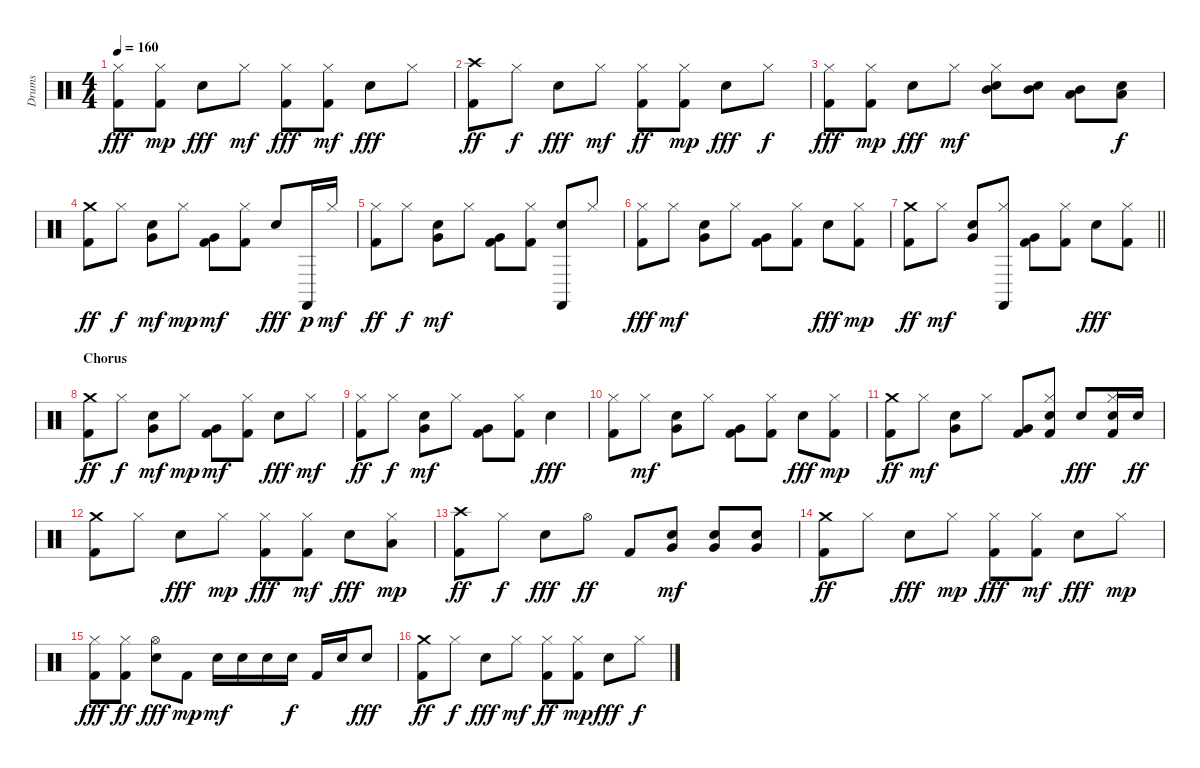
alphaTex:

\track ("Drums" "Drums") {instrument percussion}
\staff {score}
\articulation defaults
\ts (4 4)
\tempo 160
\clef neutral
\ks c
("Kick (hit) 2" "Hi-Hat (closed)").8{dy fff} ("Kick (hit) 2" "Hi-Hat (closed)").8{dy mp} "Electric Snare (hit)".8{dy fff} "Hi-Hat (closed)".8{dy mf} ("Kick (hit) 2" "Hi-Hat (closed)").8{dy fff} ("Kick (hit) 2" "Hi-Hat (closed)").8{dy mf} "Electric Snare (hit)".8{dy fff} "Hi-Hat (closed)".8 |
("Kick (hit) 2" "Crash high (hit)").8{dy ff} "Hi-Hat (closed)".8{dy f} "Electric Snare (hit)".8{dy fff} "Hi-Hat (closed)".8{dy mf} ("Kick (hit) 2" "Hi-Hat (closed)").8{dy ff} ("Kick (hit) 2" "Hi-Hat (closed)").8{dy mp} "Electric Snare (hit)".8{dy fff} "Hi-Hat (closed)".8{dy f} |
("Kick (hit) 2" "Hi-Hat (closed)").8{dy fff} ("Kick (hit) 2" "Hi-Hat (closed)").8{dy mp} "Electric Snare (hit)".8{dy fff} "Hi-Hat (closed)".8{dy mf} ("Electric Snare (hit)" "Hi-Hat (closed)" "Mid Tom (hit)").8 ("Electric Snare (hit)" "Mid Tom (hit)").8 ("Low Tom (hit)" "Mid Tom (hit)").8 ("Electric Snare (hit)" "Low Tom (hit)").8{dy f} |
("Kick (hit) 2" "Crash medium (hit)").8{dy ff} "Hi-Hat (closed)".8{dy f} ("Electric Snare (hit)" "Very Low Tom (hit)").8{dy mf} "Hi-Hat (closed)".8{dy mp} ("Kick (hit) 2" "Very Low Tom (hit)").8{dy mf} ("Kick (hit) 2" "Hi-Hat (closed)").8 "Electric Snare (hit)".8{dy fff} "Castanets (hit)".16{dy p} "Hi-Hat (closed)".16{dy mf} |
("Kick (hit) 2" "Hi-Hat (closed)").8{dy ff} "Hi-Hat (closed)".8{dy f} ("Electric Snare (hit)" "Very Low Tom (hit)").8{dy mf} "Hi-Hat (closed)".8 ("Kick (hit) 2" "Very Low Tom (hit)").8 ("Kick (hit) 2" "Hi-Hat (closed)").8 ("Electric Snare (hit)" "Castanets (hit)").8 "Hi-Hat (closed)".8 |
("Kick (hit) 2" "Hi-Hat (closed)").8{dy fff} "Hi-Hat (closed)".8{dy mf} ("Electric Snare (hit)" "Very Low Tom (hit)").8 "Hi-Hat (closed)".8 ("Kick (hit) 2" "Very Low Tom (hit)").8 ("Kick (hit) 2" "Hi-Hat (closed)").8 "Electric Snare (hit)".8{dy fff} ("Kick (hit) 2" "Hi-Hat (closed)").8{dy mp} |
\barLineRight lightlight
("Kick (hit) 2" "Crash medium (hit)").8{dy ff} "Hi-Hat (closed)".8{dy mf} ("Electric Snare (hit)" "Very Low Tom (hit)").8 ("Castanets (hit)" "Hi-Hat (closed)").8 ("Kick (hit) 2" "Very Low Tom (hit)").8 ("Kick (hit) 2" "Hi-Hat (closed)").8 "Electric Snare (hit)".8{dy fff} ("Kick (hit) 2" "Hi-Hat (closed)").8 |
\section ("" "Chorus")
("Kick (hit) 2" "Crash medium (hit)").8{dy ff} "Hi-Hat (closed)".8{dy f} ("Electric Snare (hit)" "Very Low Tom (hit)").8{dy mf} "Hi-Hat (closed)".8{dy mp} ("Kick (hit) 2" "Very Low Tom (hit)").8{dy mf} ("Kick (hit) 2" "Hi-Hat (closed)").8 "Electric Snare (hit)".8{dy fff} "Hi-Hat (closed)".8{dy mf} |
("Kick (hit) 2" "Hi-Hat (closed)").8{dy ff} "Hi-Hat (closed)".8{dy f} ("Electric Snare (hit)" "Very Low Tom (hit)").8{dy mf} "Hi-Hat (closed)".8 ("Kick (hit) 2" "Very Low Tom (hit)").8 ("Kick (hit) 2" "Hi-Hat (closed)").8 "Electric Snare (hit)".4{dy fff} |
("Kick (hit) 2" "Hi-Hat (closed)").8 "Hi-Hat (closed)".8{dy mf} ("Electric Snare (hit)" "Very Low Tom (hit)").8 "Hi-Hat (closed)".8 ("Kick (hit) 2" "Very Low Tom (hit)").8 ("Kick (hit) 2" "Hi-Hat (closed)").8 "Electric Snare (hit)".8{dy fff} ("Kick (hit) 2" "Hi-Hat (closed)").8{dy mp} |
("Crash medium (hit)" "Kick (hit) 2").8{dy ff} "Hi-Hat (closed)".8{dy mf} ("Electric Snare (hit)" "Very Low Tom (hit)").8 "Hi-Hat (closed)".8 ("Kick (hit) 2" "Very Low Tom (hit)").8 ("Kick (hit) 2" "Electric Snare (hit)" "Hi-Hat (closed)").8 "Electric Snare (hit)".8{dy fff} ("Kick (hit) 2" "Electric Snare (hit)" "Hi-Hat (closed)").16 "Electric Snare (hit)".16{dy ff} |
("Kick (hit) 2" "Crash medium (hit)").8 "Hi-Hat (closed)".8 "Electric Snare (hit)".8{dy fff} "Hi-Hat (closed)".8{dy mp} ("Kick (hit) 2" "Hi-Hat (closed)").8{dy fff} ("Kick (hit) 2" "Hi-Hat (closed)").8{dy mf} "Electric Snare (hit)".8{dy fff} ("Hi-Hat (closed)" "Low Tom (hit)").8{dy mp} |
("Kick (hit) 2" "Crash high (hit)").8{dy ff} "Hi-Hat (closed)".8{dy f} "Electric Snare (hit)".8{dy fff} "Hi-Hat (open)".8{dy ff} "Kick (hit) 2".8 ("Electric Snare (hit)" "Very Low Tom (hit)").8{dy mf} ("Electric Snare (hit)" "Very Low Tom (hit)").8 ("Electric Snare (hit)" "Very Low Tom (hit)").8 |
("Kick (hit) 2" "Crash medium (hit)").8{dy ff} "Hi-Hat (closed)".8 "Electric Snare (hit)".8{dy fff} "Hi-Hat (closed)".8{dy mp} ("Kick (hit) 2" "Hi-Hat (closed)").8{dy fff} ("Kick (hit) 2" "Hi-Hat (closed)").8{dy mf} "Electric Snare (hit)".8{dy fff} "Hi-Hat (closed)".8{dy mp} |
("Kick (hit) 2" "Hi-Hat (closed)").8{dy fff} ("Kick (hit) 2" "Hi-Hat (closed)").8{dy ff} ("Electric Snare (hit)" "Hi-Hat (open)").8{dy fff} "Kick (hit) 2".8{dy mp} "Electric Snare (hit)".16{dy mf} "Electric Snare (hit)".16 "Electric Snare (hit)".16 "Electric Snare (hit)".16{dy f} "Kick (hit) 2".16 "Electric Snare (hit)".16 "Electric Snare (hit)".8{dy fff} |
("Kick (hit) 2" "Crash medium (hit)").8{dy ff} "Hi-Hat (closed)".8{dy f} "Electric Snare (hit)".8{dy fff} "Hi-Hat (closed)".8{dy mf} ("Kick (hit) 2" "Hi-Hat (closed)").8{dy ff} ("Kick (hit) 2" "Hi-Hat (closed)").8{dy mp} "Electric Snare (hit)".8{dy fff} "Hi-Hat (closed)".8{dy f}
